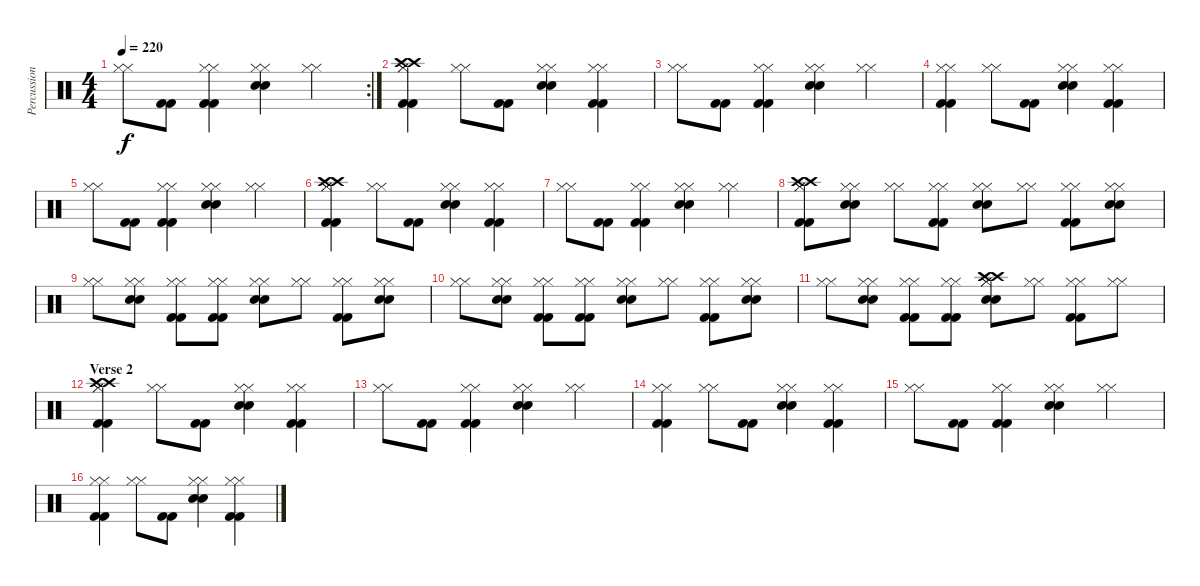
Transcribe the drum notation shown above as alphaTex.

\track ("Percussion" "Percussion") {instrument percussion}
\staff {score}
\articulation defaults
\rc 2
\ts (4 4)
\tempo 220
\clef neutral
\ks c
("Hi-Hat (closed)" "Hi-Hat (closed)").8{dy f} ("Kick (hit) 2" "Kick (hit) 2").8 ("Hi-Hat (closed)" "Hi-Hat (closed)" "Kick (hit) 2" "Kick (hit) 2").4 ("Hi-Hat (closed)" "Hi-Hat (closed)" "Electric Snare (hit)" "Electric Snare (hit)").4 ("Hi-Hat (closed)" "Hi-Hat (closed)").4 |
("Hi-Hat (closed)" "Hi-Hat (closed)" "Kick (hit) 2" "Kick (hit) 2" "Crash high (hit)" "Crash high (hit)").4 ("Hi-Hat (closed)" "Hi-Hat (closed)").8 ("Kick (hit) 2" "Kick (hit) 2").8 ("Hi-Hat (closed)" "Hi-Hat (closed)" "Electric Snare (hit)" "Electric Snare (hit)").4 ("Hi-Hat (closed)" "Hi-Hat (closed)" "Kick (hit) 2" "Kick (hit) 2").4 |
("Hi-Hat (closed)" "Hi-Hat (closed)").8 ("Kick (hit) 2" "Kick (hit) 2").8 ("Hi-Hat (closed)" "Hi-Hat (closed)" "Kick (hit) 2" "Kick (hit) 2").4 ("Hi-Hat (closed)" "Hi-Hat (closed)" "Electric Snare (hit)" "Electric Snare (hit)").4 ("Hi-Hat (closed)" "Hi-Hat (closed)").4 |
("Hi-Hat (closed)" "Hi-Hat (closed)" "Kick (hit) 2" "Kick (hit) 2").4 ("Hi-Hat (closed)" "Hi-Hat (closed)").8 ("Kick (hit) 2" "Kick (hit) 2").8 ("Hi-Hat (closed)" "Hi-Hat (closed)" "Electric Snare (hit)" "Electric Snare (hit)").4 ("Hi-Hat (closed)" "Hi-Hat (closed)" "Kick (hit) 2" "Kick (hit) 2").4 |
("Hi-Hat (closed)" "Hi-Hat (closed)").8 ("Kick (hit) 2" "Kick (hit) 2").8 ("Hi-Hat (closed)" "Hi-Hat (closed)" "Kick (hit) 2" "Kick (hit) 2").4 ("Hi-Hat (closed)" "Hi-Hat (closed)" "Electric Snare (hit)" "Electric Snare (hit)").4 ("Hi-Hat (closed)" "Hi-Hat (closed)").4 |
("Hi-Hat (closed)" "Hi-Hat (closed)" "Kick (hit) 2" "Kick (hit) 2" "Crash high (hit)" "Crash high (hit)").4 ("Hi-Hat (closed)" "Hi-Hat (closed)").8 ("Kick (hit) 2" "Kick (hit) 2").8 ("Hi-Hat (closed)" "Hi-Hat (closed)" "Electric Snare (hit)" "Electric Snare (hit)").4 ("Hi-Hat (closed)" "Hi-Hat (closed)" "Kick (hit) 2" "Kick (hit) 2").4 |
("Hi-Hat (closed)" "Hi-Hat (closed)").8 ("Kick (hit) 2" "Kick (hit) 2").8 ("Hi-Hat (closed)" "Hi-Hat (closed)" "Kick (hit) 2" "Kick (hit) 2").4 ("Hi-Hat (closed)" "Hi-Hat (closed)" "Electric Snare (hit)" "Electric Snare (hit)").4 ("Hi-Hat (closed)" "Hi-Hat (closed)").4 |
("Hi-Hat (closed)" "Hi-Hat (closed)" "Kick (hit) 2" "Kick (hit) 2" "Crash high (hit)" "Crash high (hit)").8 ("Hi-Hat (closed)" "Hi-Hat (closed)" "Electric Snare (hit)" "Electric Snare (hit)").8 ("Hi-Hat (closed)" "Hi-Hat (closed)").8 ("Hi-Hat (closed)" "Hi-Hat (closed)" "Kick (hit) 2" "Kick (hit) 2").8 ("Hi-Hat (closed)" "Hi-Hat (closed)" "Electric Snare (hit)" "Electric Snare (hit)").8 ("Hi-Hat (closed)" "Hi-Hat (closed)").8 ("Hi-Hat (closed)" "Hi-Hat (closed)" "Kick (hit) 2" "Kick (hit) 2").8 ("Hi-Hat (closed)" "Hi-Hat (closed)" "Electric Snare (hit)" "Electric Snare (hit)").8 |
("Hi-Hat (closed)" "Hi-Hat (closed)").8 ("Hi-Hat (closed)" "Hi-Hat (closed)" "Electric Snare (hit)" "Electric Snare (hit)").8 ("Hi-Hat (closed)" "Hi-Hat (closed)" "Kick (hit) 2" "Kick (hit) 2").8 ("Hi-Hat (closed)" "Hi-Hat (closed)" "Kick (hit) 2" "Kick (hit) 2").8 ("Hi-Hat (closed)" "Hi-Hat (closed)" "Electric Snare (hit)" "Electric Snare (hit)").8 ("Hi-Hat (closed)" "Hi-Hat (closed)").8 ("Hi-Hat (closed)" "Hi-Hat (closed)" "Kick (hit) 2" "Kick (hit) 2").8 ("Hi-Hat (closed)" "Hi-Hat (closed)" "Electric Snare (hit)" "Electric Snare (hit)").8 |
("Hi-Hat (closed)" "Hi-Hat (closed)").8 ("Hi-Hat (closed)" "Hi-Hat (closed)" "Electric Snare (hit)" "Electric Snare (hit)").8 ("Hi-Hat (closed)" "Hi-Hat (closed)" "Kick (hit) 2" "Kick (hit) 2").8 ("Hi-Hat (closed)" "Hi-Hat (closed)" "Kick (hit) 2" "Kick (hit) 2").8 ("Hi-Hat (closed)" "Hi-Hat (closed)" "Electric Snare (hit)" "Electric Snare (hit)").8 ("Hi-Hat (closed)" "Hi-Hat (closed)").8 ("Hi-Hat (closed)" "Hi-Hat (closed)" "Kick (hit) 2" "Kick (hit) 2").8 ("Hi-Hat (closed)" "Hi-Hat (closed)" "Electric Snare (hit)" "Electric Snare (hit)").8 |
("Hi-Hat (closed)" "Hi-Hat (closed)").8 ("Hi-Hat (closed)" "Hi-Hat (closed)" "Electric Snare (hit)" "Electric Snare (hit)").8 ("Hi-Hat (closed)" "Hi-Hat (closed)" "Kick (hit) 2" "Kick (hit) 2").8 ("Hi-Hat (closed)" "Hi-Hat (closed)" "Kick (hit) 2" "Kick (hit) 2").8 ("Hi-Hat (closed)" "Hi-Hat (closed)" "Electric Snare (hit)" "Electric Snare (hit)" "Crash high (hit)" "Crash high (hit)").8 ("Hi-Hat (closed)" "Hi-Hat (closed)").8 ("Hi-Hat (closed)" "Hi-Hat (closed)" "Kick (hit) 2" "Kick (hit) 2").8 ("Hi-Hat (closed)" "Hi-Hat (closed)").8 |
\section ("" "Verse 2")
("Hi-Hat (closed)" "Hi-Hat (closed)" "Kick (hit) 2" "Kick (hit) 2" "Crash high (hit)" "Crash high (hit)").4 ("Hi-Hat (closed)" "Hi-Hat (closed)").8 ("Kick (hit) 2" "Kick (hit) 2").8 ("Hi-Hat (closed)" "Hi-Hat (closed)" "Electric Snare (hit)" "Electric Snare (hit)").4 ("Hi-Hat (closed)" "Hi-Hat (closed)" "Kick (hit) 2" "Kick (hit) 2").4 |
("Hi-Hat (closed)" "Hi-Hat (closed)").8 ("Kick (hit) 2" "Kick (hit) 2").8 ("Hi-Hat (closed)" "Hi-Hat (closed)" "Kick (hit) 2" "Kick (hit) 2").4 ("Hi-Hat (closed)" "Hi-Hat (closed)" "Electric Snare (hit)" "Electric Snare (hit)").4 ("Hi-Hat (closed)" "Hi-Hat (closed)").4 |
("Hi-Hat (closed)" "Hi-Hat (closed)" "Kick (hit) 2" "Kick (hit) 2").4 ("Hi-Hat (closed)" "Hi-Hat (closed)").8 ("Kick (hit) 2" "Kick (hit) 2").8 ("Hi-Hat (closed)" "Hi-Hat (closed)" "Electric Snare (hit)" "Electric Snare (hit)").4 ("Hi-Hat (closed)" "Hi-Hat (closed)" "Kick (hit) 2" "Kick (hit) 2").4 |
("Hi-Hat (closed)" "Hi-Hat (closed)").8 ("Kick (hit) 2" "Kick (hit) 2").8 ("Hi-Hat (closed)" "Hi-Hat (closed)" "Kick (hit) 2" "Kick (hit) 2").4 ("Hi-Hat (closed)" "Hi-Hat (closed)" "Electric Snare (hit)" "Electric Snare (hit)").4 ("Hi-Hat (closed)" "Hi-Hat (closed)").4 |
("Hi-Hat (closed)" "Hi-Hat (closed)" "Kick (hit) 2" "Kick (hit) 2").4 ("Hi-Hat (closed)" "Hi-Hat (closed)").8 ("Kick (hit) 2" "Kick (hit) 2").8 ("Hi-Hat (closed)" "Hi-Hat (closed)" "Electric Snare (hit)" "Electric Snare (hit)").4 ("Hi-Hat (closed)" "Hi-Hat (closed)" "Kick (hit) 2" "Kick (hit) 2").4
